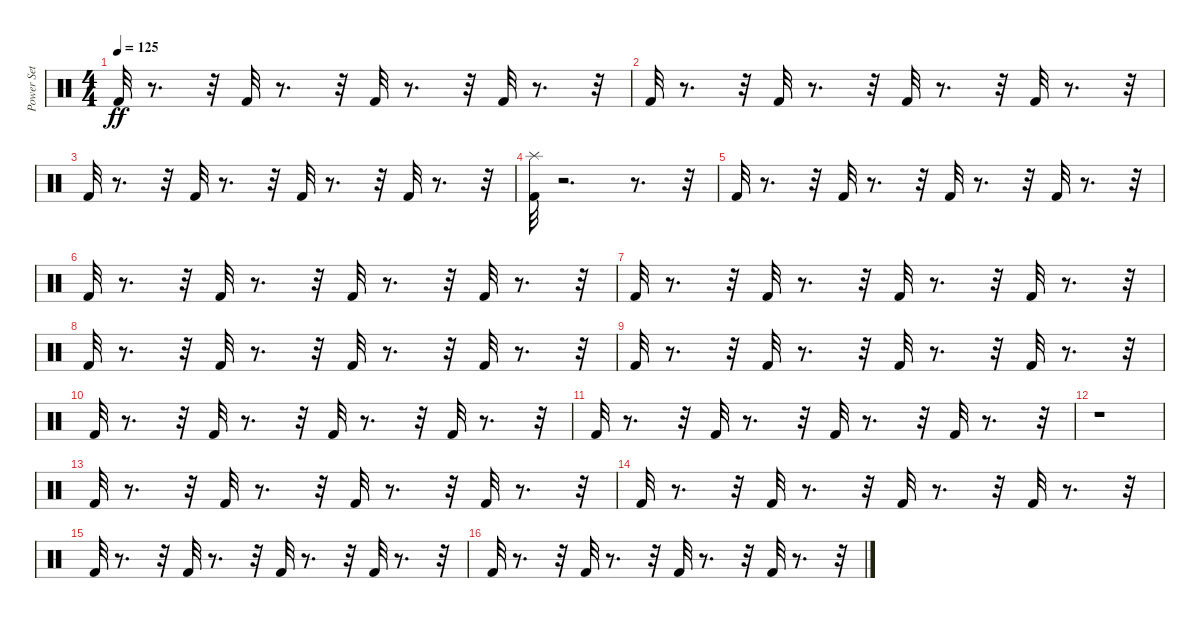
\track ("Power Set" "Power Set") {instrument percussion}
\staff {score}
\articulation defaults
\ts (4 4)
\tempo 125
\clef neutral
\ks c "Kick (hit) 2".32{dy ff}
r.8{d} r.32 "Kick (hit) 2".32 r.8{d} r.32 "Kick (hit) 2".32 r.8{d} r.32 "Kick (hit) 2".32 r.8{d} r.32 |
"Kick (hit) 2".32 r.8{d} r.32 "Kick (hit) 2".32 r.8{d} r.32 "Kick (hit) 2".32 r.8{d} r.32 "Kick (hit) 2".32 r.8{d} r.32 |
"Kick (hit) 2".32 r.8{d} r.32 "Kick (hit) 2".32 r.8{d} r.32 "Kick (hit) 2".32 r.8{d} r.32 "Kick (hit) 2".32 r.8{d} r.32 |
("Kick (hit) 2" "Splash (hit)").32 r.2{d} r.8{d} r.32 |
"Kick (hit) 2".32 r.8{d} r.32 "Kick (hit) 2".32 r.8{d} r.32 "Kick (hit) 2".32 r.8{d} r.32 "Kick (hit) 2".32 r.8{d} r.32 |
"Kick (hit) 2".32 r.8{d} r.32 "Kick (hit) 2".32 r.8{d} r.32 "Kick (hit) 2".32 r.8{d} r.32 "Kick (hit) 2".32 r.8{d} r.32 |
"Kick (hit) 2".32 r.8{d} r.32 "Kick (hit) 2".32 r.8{d} r.32 "Kick (hit) 2".32 r.8{d} r.32 "Kick (hit) 2".32 r.8{d} r.32 |
"Kick (hit) 2".32 r.8{d} r.32 "Kick (hit) 2".32 r.8{d} r.32 "Kick (hit) 2".32 r.8{d} r.32 "Kick (hit) 2".32 r.8{d} r.32 |
"Kick (hit) 2".32 r.8{d} r.32 "Kick (hit) 2".32 r.8{d} r.32 "Kick (hit) 2".32 r.8{d} r.32 "Kick (hit) 2".32 r.8{d} r.32 |
"Kick (hit) 2".32 r.8{d} r.32 "Kick (hit) 2".32 r.8{d} r.32 "Kick (hit) 2".32 r.8{d} r.32 "Kick (hit) 2".32 r.8{d} r.32 |
"Kick (hit) 2".32 r.8{d} r.32 "Kick (hit) 2".32 r.8{d} r.32 "Kick (hit) 2".32 r.8{d} r.32 "Kick (hit) 2".32 r.8{d} r.32 |
r.1 |
"Kick (hit) 2".32 r.8{d} r.32 "Kick (hit) 2".32 r.8{d} r.32 "Kick (hit) 2".32 r.8{d} r.32 "Kick (hit) 2".32 r.8{d} r.32 |
"Kick (hit) 2".32 r.8{d} r.32 "Kick (hit) 2".32 r.8{d} r.32 "Kick (hit) 2".32 r.8{d} r.32 "Kick (hit) 2".32 r.8{d} r.32 |
"Kick (hit) 2".32 r.8{d} r.32 "Kick (hit) 2".32 r.8{d} r.32 "Kick (hit) 2".32 r.8{d} r.32 "Kick (hit) 2".32 r.8{d} r.32 |
"Kick (hit) 2".32 r.8{d} r.32 "Kick (hit) 2".32 r.8{d} r.32 "Kick (hit) 2".32 r.8{d} r.32 "Kick (hit) 2".32 r.8{d} r.32
